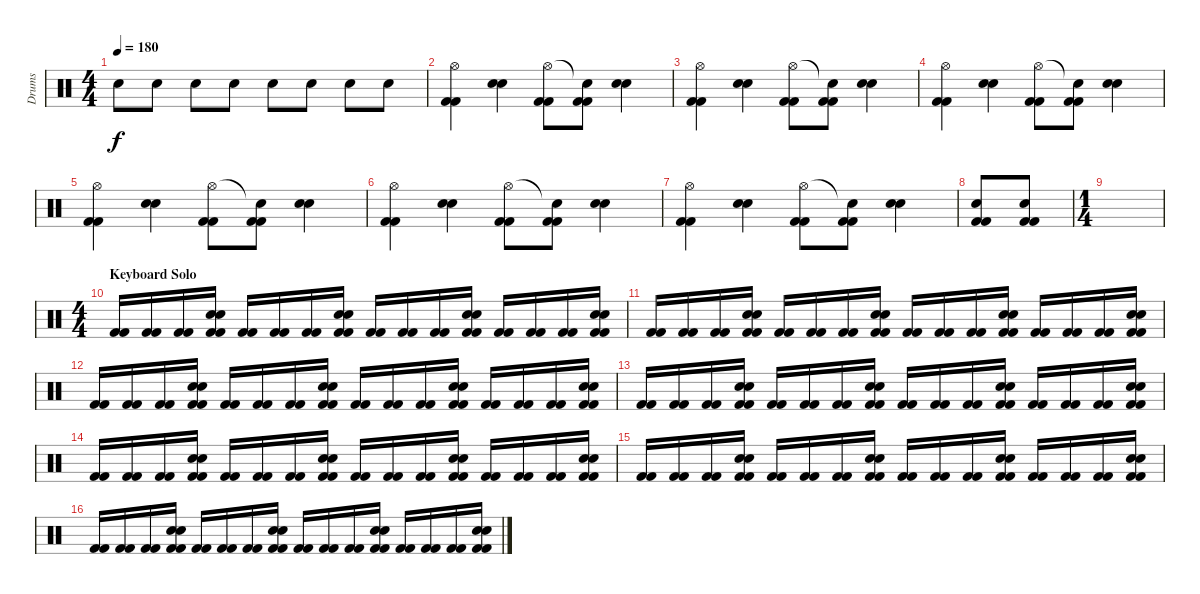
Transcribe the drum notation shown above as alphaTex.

\track ("Drums" "Drums") {instrument percussion}
\staff {score}
\articulation defaults
\ts (4 4)
\tempo 180
\clef neutral
\ks c "Snare (hit) 2".8{dy f} "Snare (hit) 2".8 "Snare (hit) 2".8 "Snare (hit) 2".8 "Snare (hit) 2".8 "Snare (hit) 2".8 "Snare (hit) 2".8 "Snare (hit) 2".8
|
("Kick (hit) 2" "Kick (hit) 2" "Hi-Hat (open)").4 ("Electric Snare (hit)" "Electric Snare (hit)").4 ("Kick (hit) 2" "Kick (hit) 2" "Hi-Hat (open)").8 ("Kick (hit) 2" "Kick (hit) 2" "Snare (hit)"{t}).8 ("Electric Snare (hit)" "Electric Snare (hit)").4 |
("Kick (hit) 2" "Kick (hit) 2" "Hi-Hat (open)").4 ("Electric Snare (hit)" "Electric Snare (hit)").4 ("Kick (hit) 2" "Kick (hit) 2" "Hi-Hat (open)").8 ("Kick (hit) 2" "Kick (hit) 2" "Snare (hit)"{t}).8 ("Electric Snare (hit)" "Electric Snare (hit)").4 |
("Kick (hit) 2" "Kick (hit) 2" "Hi-Hat (open)").4 ("Electric Snare (hit)" "Electric Snare (hit)").4 ("Kick (hit) 2" "Kick (hit) 2" "Hi-Hat (open)").8 ("Kick (hit) 2" "Kick (hit) 2" "Snare (hit)"{t}).8 ("Electric Snare (hit)" "Electric Snare (hit)").4 |
("Kick (hit) 2" "Kick (hit) 2" "Hi-Hat (open)").4 ("Electric Snare (hit)" "Electric Snare (hit)").4 ("Kick (hit) 2" "Kick (hit) 2" "Hi-Hat (open)").8 ("Kick (hit) 2" "Kick (hit) 2" "Snare (hit)"{t}).8 ("Electric Snare (hit)" "Electric Snare (hit)").4 |
("Kick (hit) 2" "Kick (hit) 2" "Hi-Hat (open)").4 ("Electric Snare (hit)" "Electric Snare (hit)").4 ("Kick (hit) 2" "Kick (hit) 2" "Hi-Hat (open)").8 ("Kick (hit) 2" "Kick (hit) 2" "Snare (hit)"{t}).8 ("Electric Snare (hit)" "Electric Snare (hit)").4 |
("Kick (hit) 2" "Kick (hit) 2" "Hi-Hat (open)").4 ("Electric Snare (hit)" "Electric Snare (hit)").4 ("Kick (hit) 2" "Kick (hit) 2" "Hi-Hat (open)").8 ("Kick (hit) 2" "Kick (hit) 2" "Snare (hit)"{t}).8 ("Electric Snare (hit)" "Electric Snare (hit)").4 |
("Kick (hit) 2" "Kick (hit) 2" "Electric Snare (hit)").8 ("Kick (hit) 2" "Kick (hit) 2" "Electric Snare (hit)").8 |
\ts (1 4)
|
\ts (4 4)
\section ("" "Keyboard Solo")
("Kick (hit) 2" "Kick (hit) 2").16 ("Kick (hit) 2" "Kick (hit) 2").16 ("Kick (hit) 2" "Kick (hit) 2").16 ("Electric Snare (hit)" "Electric Snare (hit)" "Kick (hit) 2" "Kick (hit) 2").16 ("Kick (hit) 2" "Kick (hit) 2").16 ("Kick (hit) 2" "Kick (hit) 2").16 ("Kick (hit) 2" "Kick (hit) 2").16 ("Electric Snare (hit)" "Electric Snare (hit)" "Kick (hit) 2" "Kick (hit) 2").16 ("Kick (hit) 2" "Kick (hit) 2").16 ("Kick (hit) 2" "Kick (hit) 2").16 ("Kick (hit) 2" "Kick (hit) 2").16 ("Electric Snare (hit)" "Electric Snare (hit)" "Kick (hit) 2" "Kick (hit) 2").16 ("Kick (hit) 2" "Kick (hit) 2").16 ("Kick (hit) 2" "Kick (hit) 2").16 ("Kick (hit) 2" "Kick (hit) 2").16 ("Electric Snare (hit)" "Electric Snare (hit)" "Kick (hit) 2" "Kick (hit) 2").16 |
("Kick (hit) 2" "Kick (hit) 2").16 ("Kick (hit) 2" "Kick (hit) 2").16 ("Kick (hit) 2" "Kick (hit) 2").16 ("Electric Snare (hit)" "Electric Snare (hit)" "Kick (hit) 2" "Kick (hit) 2").16 ("Kick (hit) 2" "Kick (hit) 2").16 ("Kick (hit) 2" "Kick (hit) 2").16 ("Kick (hit) 2" "Kick (hit) 2").16 ("Electric Snare (hit)" "Electric Snare (hit)" "Kick (hit) 2" "Kick (hit) 2").16 ("Kick (hit) 2" "Kick (hit) 2").16 ("Kick (hit) 2" "Kick (hit) 2").16 ("Kick (hit) 2" "Kick (hit) 2").16 ("Electric Snare (hit)" "Electric Snare (hit)" "Kick (hit) 2" "Kick (hit) 2").16 ("Kick (hit) 2" "Kick (hit) 2").16 ("Kick (hit) 2" "Kick (hit) 2").16 ("Kick (hit) 2" "Kick (hit) 2").16 ("Electric Snare (hit)" "Electric Snare (hit)" "Kick (hit) 2" "Kick (hit) 2").16 |
("Kick (hit) 2" "Kick (hit) 2").16 ("Kick (hit) 2" "Kick (hit) 2").16 ("Kick (hit) 2" "Kick (hit) 2").16 ("Electric Snare (hit)" "Electric Snare (hit)" "Kick (hit) 2" "Kick (hit) 2").16 ("Kick (hit) 2" "Kick (hit) 2").16 ("Kick (hit) 2" "Kick (hit) 2").16 ("Kick (hit) 2" "Kick (hit) 2").16 ("Electric Snare (hit)" "Electric Snare (hit)" "Kick (hit) 2" "Kick (hit) 2").16 ("Kick (hit) 2" "Kick (hit) 2").16 ("Kick (hit) 2" "Kick (hit) 2").16 ("Kick (hit) 2" "Kick (hit) 2").16 ("Electric Snare (hit)" "Electric Snare (hit)" "Kick (hit) 2" "Kick (hit) 2").16 ("Kick (hit) 2" "Kick (hit) 2").16 ("Kick (hit) 2" "Kick (hit) 2").16 ("Kick (hit) 2" "Kick (hit) 2").16 ("Electric Snare (hit)" "Electric Snare (hit)" "Kick (hit) 2" "Kick (hit) 2").16 |
("Kick (hit) 2" "Kick (hit) 2").16 ("Kick (hit) 2" "Kick (hit) 2").16 ("Kick (hit) 2" "Kick (hit) 2").16 ("Electric Snare (hit)" "Electric Snare (hit)" "Kick (hit) 2" "Kick (hit) 2").16 ("Kick (hit) 2" "Kick (hit) 2").16 ("Kick (hit) 2" "Kick (hit) 2").16 ("Kick (hit) 2" "Kick (hit) 2").16 ("Electric Snare (hit)" "Electric Snare (hit)" "Kick (hit) 2" "Kick (hit) 2").16 ("Kick (hit) 2" "Kick (hit) 2").16 ("Kick (hit) 2" "Kick (hit) 2").16 ("Kick (hit) 2" "Kick (hit) 2").16 ("Electric Snare (hit)" "Electric Snare (hit)" "Kick (hit) 2" "Kick (hit) 2").16 ("Kick (hit) 2" "Kick (hit) 2").16 ("Kick (hit) 2" "Kick (hit) 2").16 ("Kick (hit) 2" "Kick (hit) 2").16 ("Electric Snare (hit)" "Electric Snare (hit)" "Kick (hit) 2" "Kick (hit) 2").16 |
("Kick (hit) 2" "Kick (hit) 2").16 ("Kick (hit) 2" "Kick (hit) 2").16 ("Kick (hit) 2" "Kick (hit) 2").16 ("Electric Snare (hit)" "Electric Snare (hit)" "Kick (hit) 2" "Kick (hit) 2").16 ("Kick (hit) 2" "Kick (hit) 2").16 ("Kick (hit) 2" "Kick (hit) 2").16 ("Kick (hit) 2" "Kick (hit) 2").16 ("Electric Snare (hit)" "Electric Snare (hit)" "Kick (hit) 2" "Kick (hit) 2").16 ("Kick (hit) 2" "Kick (hit) 2").16 ("Kick (hit) 2" "Kick (hit) 2").16 ("Kick (hit) 2" "Kick (hit) 2").16 ("Electric Snare (hit)" "Electric Snare (hit)" "Kick (hit) 2" "Kick (hit) 2").16 ("Kick (hit) 2" "Kick (hit) 2").16 ("Kick (hit) 2" "Kick (hit) 2").16 ("Kick (hit) 2" "Kick (hit) 2").16 ("Electric Snare (hit)" "Electric Snare (hit)" "Kick (hit) 2" "Kick (hit) 2").16 |
("Kick (hit) 2" "Kick (hit) 2").16 ("Kick (hit) 2" "Kick (hit) 2").16 ("Kick (hit) 2" "Kick (hit) 2").16 ("Electric Snare (hit)" "Electric Snare (hit)" "Kick (hit) 2" "Kick (hit) 2").16 ("Kick (hit) 2" "Kick (hit) 2").16 ("Kick (hit) 2" "Kick (hit) 2").16 ("Kick (hit) 2" "Kick (hit) 2").16 ("Electric Snare (hit)" "Electric Snare (hit)" "Kick (hit) 2" "Kick (hit) 2").16 ("Kick (hit) 2" "Kick (hit) 2").16 ("Kick (hit) 2" "Kick (hit) 2").16 ("Kick (hit) 2" "Kick (hit) 2").16 ("Electric Snare (hit)" "Electric Snare (hit)" "Kick (hit) 2" "Kick (hit) 2").16 ("Kick (hit) 2" "Kick (hit) 2").16 ("Kick (hit) 2" "Kick (hit) 2").16 ("Kick (hit) 2" "Kick (hit) 2").16 ("Electric Snare (hit)" "Electric Snare (hit)" "Kick (hit) 2" "Kick (hit) 2").16 |
("Kick (hit) 2" "Kick (hit) 2").16 ("Kick (hit) 2" "Kick (hit) 2").16 ("Kick (hit) 2" "Kick (hit) 2").16 ("Electric Snare (hit)" "Electric Snare (hit)" "Kick (hit) 2" "Kick (hit) 2").16 ("Kick (hit) 2" "Kick (hit) 2").16 ("Kick (hit) 2" "Kick (hit) 2").16 ("Kick (hit) 2" "Kick (hit) 2").16 ("Electric Snare (hit)" "Electric Snare (hit)" "Kick (hit) 2" "Kick (hit) 2").16 ("Kick (hit) 2" "Kick (hit) 2").16 ("Kick (hit) 2" "Kick (hit) 2").16 ("Kick (hit) 2" "Kick (hit) 2").16 ("Electric Snare (hit)" "Electric Snare (hit)" "Kick (hit) 2" "Kick (hit) 2").16 ("Kick (hit) 2" "Kick (hit) 2").16 ("Kick (hit) 2" "Kick (hit) 2").16 ("Kick (hit) 2" "Kick (hit) 2").16 ("Electric Snare (hit)" "Electric Snare (hit)" "Kick (hit) 2" "Kick (hit) 2").16
